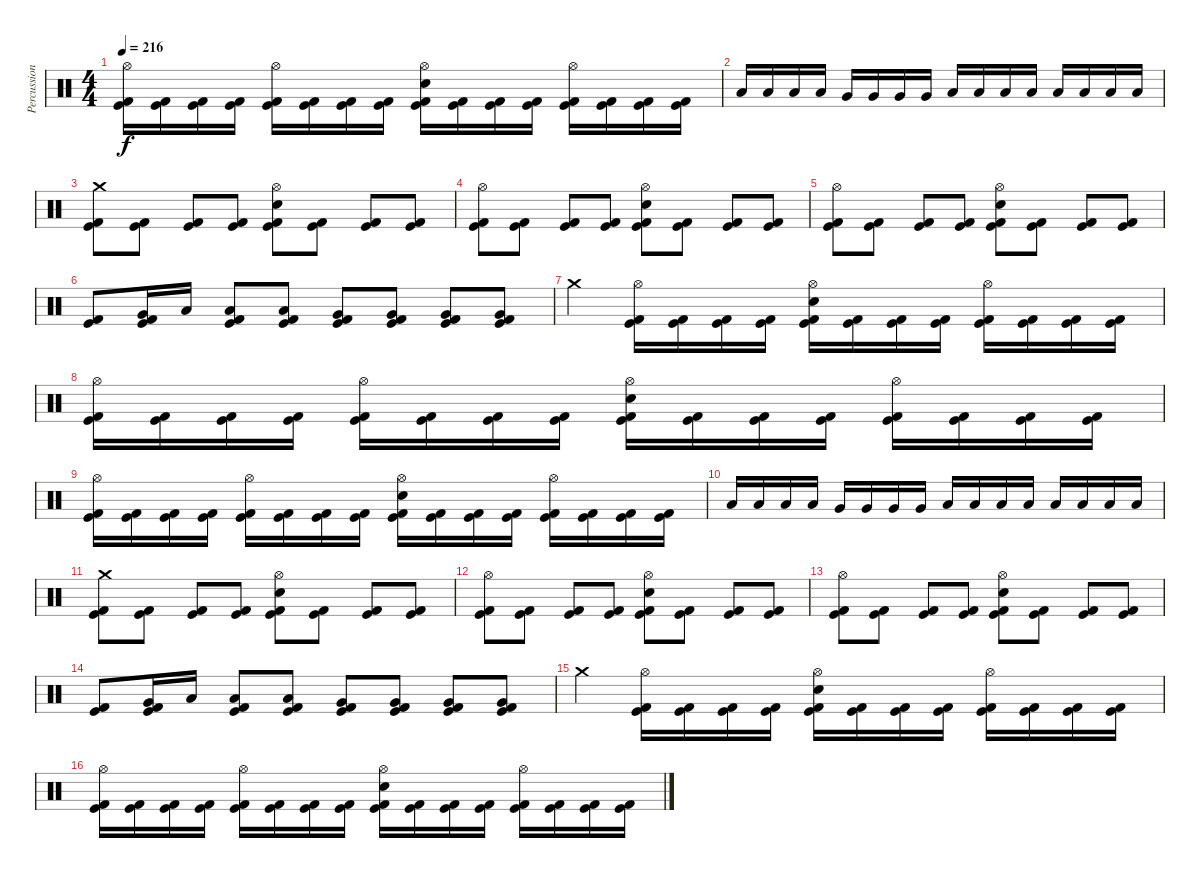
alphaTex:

\track ("Percussions" "Percussion") {instrument percussion}
\staff {score}
\articulation defaults
\ts (4 4)
\tempo 216
\clef neutral
\ks c
("Hi-Hat (open)" "Kick (hit)" "Kick (hit) 2").16{dy f} ("Kick (hit)" "Kick (hit) 2").16 ("Kick (hit)" "Kick (hit) 2").16 ("Kick (hit)" "Kick (hit) 2").16 ("Hi-Hat (open)" "Kick (hit)" "Kick (hit) 2").16 ("Kick (hit)" "Kick (hit) 2").16 ("Kick (hit)" "Kick (hit) 2").16 ("Kick (hit)" "Kick (hit) 2").16 ("Hi-Hat (open)" "Electric Snare (hit)" "Kick (hit)" "Kick (hit) 2").16 ("Kick (hit)" "Kick (hit) 2").16 ("Kick (hit)" "Kick (hit) 2").16 ("Kick (hit)" "Kick (hit) 2").16 ("Hi-Hat (open)" "Kick (hit)" "Kick (hit) 2").16 ("Kick (hit)" "Kick (hit) 2").16 ("Kick (hit)" "Kick (hit) 2").16 ("Kick (hit)" "Kick (hit) 2").16 |
"Low Tom (hit)".16 "Low Tom (hit)".16 "Low Tom (hit)".16 "Low Tom (hit)".16 "Very Low Tom (hit)".16 "Very Low Tom (hit)".16 "Very Low Tom (hit)".16 "Very Low Tom (hit)".16 "Low Tom (hit)".16 "Low Tom (hit)".16 "Low Tom (hit)".16 "Low Tom (hit)".16 "Low Floor Tom (hit)".16 "Low Floor Tom (hit)".16 "Low Floor Tom (hit)".16 "Low Floor Tom (hit)".16 |
("Crash medium (hit)" "Kick (hit)" "Kick (hit) 2").8 ("Kick (hit)" "Kick (hit) 2").8 ("Kick (hit)" "Kick (hit) 2").8 ("Kick (hit)" "Kick (hit) 2").8 ("Hi-Hat (open)" "Electric Snare (hit)" "Kick (hit)" "Kick (hit) 2").8 ("Kick (hit)" "Kick (hit) 2").8 ("Kick (hit)" "Kick (hit) 2").8 ("Kick (hit)" "Kick (hit) 2").8 |
("Hi-Hat (open)" "Kick (hit)" "Kick (hit) 2").8 ("Kick (hit)" "Kick (hit) 2").8 ("Kick (hit)" "Kick (hit) 2").8 ("Kick (hit)" "Kick (hit) 2").8 ("Hi-Hat (open)" "Electric Snare (hit)" "Kick (hit)" "Kick (hit) 2").8 ("Kick (hit)" "Kick (hit) 2").8 ("Kick (hit)" "Kick (hit) 2").8 ("Kick (hit)" "Kick (hit) 2").8 |
("Hi-Hat (open)" "Kick (hit)" "Kick (hit) 2").8 ("Kick (hit)" "Kick (hit) 2").8 ("Kick (hit)" "Kick (hit) 2").8 ("Kick (hit)" "Kick (hit) 2").8 ("Hi-Hat (open)" "Electric Snare (hit)" "Kick (hit)" "Kick (hit) 2").8 ("Kick (hit)" "Kick (hit) 2").8 ("Kick (hit)" "Kick (hit) 2").8 ("Kick (hit)" "Kick (hit) 2").8 |
("Kick (hit)" "Kick (hit) 2").8 ("Very Low Tom (hit)" "Kick (hit)" "Kick (hit) 2").16 "Low Tom (hit)".16 ("Low Tom (hit)" "Kick (hit)" "Kick (hit) 2").8 ("Low Tom (hit)" "Kick (hit)" "Kick (hit) 2").8 ("Very Low Tom (hit)" "Kick (hit)" "Kick (hit) 2").8 ("Very Low Tom (hit)" "Kick (hit)" "Kick (hit) 2").8 ("Very Low Tom (hit)" "Kick (hit)" "Kick (hit) 2").8 ("Very Low Tom (hit)" "Kick (hit)" "Kick (hit) 2").8 |
"Crash medium (hit)".4 ("Hi-Hat (open)" "Kick (hit)" "Kick (hit) 2").16 ("Kick (hit)" "Kick (hit) 2").16 ("Kick (hit)" "Kick (hit) 2").16 ("Kick (hit)" "Kick (hit) 2").16 ("Hi-Hat (open)" "Electric Snare (hit)" "Kick (hit)" "Kick (hit) 2").16 ("Kick (hit)" "Kick (hit) 2").16 ("Kick (hit)" "Kick (hit) 2").16 ("Kick (hit)" "Kick (hit) 2").16 ("Hi-Hat (open)" "Kick (hit)" "Kick (hit) 2").16 ("Kick (hit)" "Kick (hit) 2").16 ("Kick (hit)" "Kick (hit) 2").16 ("Kick (hit)" "Kick (hit) 2").16 |
("Hi-Hat (open)" "Kick (hit)" "Kick (hit) 2").16 ("Kick (hit)" "Kick (hit) 2").16 ("Kick (hit)" "Kick (hit) 2").16 ("Kick (hit)" "Kick (hit) 2").16 ("Hi-Hat (open)" "Kick (hit)" "Kick (hit) 2").16 ("Kick (hit)" "Kick (hit) 2").16 ("Kick (hit)" "Kick (hit) 2").16 ("Kick (hit)" "Kick (hit) 2").16 ("Hi-Hat (open)" "Electric Snare (hit)" "Kick (hit)" "Kick (hit) 2").16 ("Kick (hit)" "Kick (hit) 2").16 ("Kick (hit)" "Kick (hit) 2").16 ("Kick (hit)" "Kick (hit) 2").16 ("Hi-Hat (open)" "Kick (hit)" "Kick (hit) 2").16 ("Kick (hit)" "Kick (hit) 2").16 ("Kick (hit)" "Kick (hit) 2").16 ("Kick (hit)" "Kick (hit) 2").16 |
("Hi-Hat (open)" "Kick (hit)" "Kick (hit) 2").16 ("Kick (hit)" "Kick (hit) 2").16 ("Kick (hit)" "Kick (hit) 2").16 ("Kick (hit)" "Kick (hit) 2").16 ("Hi-Hat (open)" "Kick (hit)" "Kick (hit) 2").16 ("Kick (hit)" "Kick (hit) 2").16 ("Kick (hit)" "Kick (hit) 2").16 ("Kick (hit)" "Kick (hit) 2").16 ("Hi-Hat (open)" "Electric Snare (hit)" "Kick (hit)" "Kick (hit) 2").16 ("Kick (hit)" "Kick (hit) 2").16 ("Kick (hit)" "Kick (hit) 2").16 ("Kick (hit)" "Kick (hit) 2").16 ("Hi-Hat (open)" "Kick (hit)" "Kick (hit) 2").16 ("Kick (hit)" "Kick (hit) 2").16 ("Kick (hit)" "Kick (hit) 2").16 ("Kick (hit)" "Kick (hit) 2").16 |
"Low Tom (hit)".16 "Low Tom (hit)".16 "Low Tom (hit)".16 "Low Tom (hit)".16 "Very Low Tom (hit)".16 "Very Low Tom (hit)".16 "Very Low Tom (hit)".16 "Very Low Tom (hit)".16 "Low Tom (hit)".16 "Low Tom (hit)".16 "Low Tom (hit)".16 "Low Tom (hit)".16 "Low Floor Tom (hit)".16 "Low Floor Tom (hit)".16 "Low Floor Tom (hit)".16 "Low Floor Tom (hit)".16 |
("Crash medium (hit)" "Kick (hit)" "Kick (hit) 2").8 ("Kick (hit)" "Kick (hit) 2").8 ("Kick (hit)" "Kick (hit) 2").8 ("Kick (hit)" "Kick (hit) 2").8 ("Hi-Hat (open)" "Electric Snare (hit)" "Kick (hit)" "Kick (hit) 2").8 ("Kick (hit)" "Kick (hit) 2").8 ("Kick (hit)" "Kick (hit) 2").8 ("Kick (hit)" "Kick (hit) 2").8 |
("Hi-Hat (open)" "Kick (hit)" "Kick (hit) 2").8 ("Kick (hit)" "Kick (hit) 2").8 ("Kick (hit)" "Kick (hit) 2").8 ("Kick (hit)" "Kick (hit) 2").8 ("Hi-Hat (open)" "Electric Snare (hit)" "Kick (hit)" "Kick (hit) 2").8 ("Kick (hit)" "Kick (hit) 2").8 ("Kick (hit)" "Kick (hit) 2").8 ("Kick (hit)" "Kick (hit) 2").8 |
("Hi-Hat (open)" "Kick (hit)" "Kick (hit) 2").8 ("Kick (hit)" "Kick (hit) 2").8 ("Kick (hit)" "Kick (hit) 2").8 ("Kick (hit)" "Kick (hit) 2").8 ("Hi-Hat (open)" "Electric Snare (hit)" "Kick (hit)" "Kick (hit) 2").8 ("Kick (hit)" "Kick (hit) 2").8 ("Kick (hit)" "Kick (hit) 2").8 ("Kick (hit)" "Kick (hit) 2").8 |
("Kick (hit)" "Kick (hit) 2").8 ("Very Low Tom (hit)" "Kick (hit)" "Kick (hit) 2").16 "Low Tom (hit)".16 ("Low Tom (hit)" "Kick (hit)" "Kick (hit) 2").8 ("Low Tom (hit)" "Kick (hit)" "Kick (hit) 2").8 ("Very Low Tom (hit)" "Kick (hit)" "Kick (hit) 2").8 ("Very Low Tom (hit)" "Kick (hit)" "Kick (hit) 2").8 ("Very Low Tom (hit)" "Kick (hit)" "Kick (hit) 2").8 ("Very Low Tom (hit)" "Kick (hit)" "Kick (hit) 2").8 |
"Crash medium (hit)".4 ("Hi-Hat (open)" "Kick (hit)" "Kick (hit) 2").16 ("Kick (hit)" "Kick (hit) 2").16 ("Kick (hit)" "Kick (hit) 2").16 ("Kick (hit)" "Kick (hit) 2").16 ("Hi-Hat (open)" "Electric Snare (hit)" "Kick (hit)" "Kick (hit) 2").16 ("Kick (hit)" "Kick (hit) 2").16 ("Kick (hit)" "Kick (hit) 2").16 ("Kick (hit)" "Kick (hit) 2").16 ("Hi-Hat (open)" "Kick (hit)" "Kick (hit) 2").16 ("Kick (hit)" "Kick (hit) 2").16 ("Kick (hit)" "Kick (hit) 2").16 ("Kick (hit)" "Kick (hit) 2").16 |
("Hi-Hat (open)" "Kick (hit)" "Kick (hit) 2").16 ("Kick (hit)" "Kick (hit) 2").16 ("Kick (hit)" "Kick (hit) 2").16 ("Kick (hit)" "Kick (hit) 2").16 ("Hi-Hat (open)" "Kick (hit)" "Kick (hit) 2").16 ("Kick (hit)" "Kick (hit) 2").16 ("Kick (hit)" "Kick (hit) 2").16 ("Kick (hit)" "Kick (hit) 2").16 ("Hi-Hat (open)" "Electric Snare (hit)" "Kick (hit)" "Kick (hit) 2").16 ("Kick (hit)" "Kick (hit) 2").16 ("Kick (hit)" "Kick (hit) 2").16 ("Kick (hit)" "Kick (hit) 2").16 ("Hi-Hat (open)" "Kick (hit)" "Kick (hit) 2").16 ("Kick (hit)" "Kick (hit) 2").16 ("Kick (hit)" "Kick (hit) 2").16 ("Kick (hit)" "Kick (hit) 2").16
